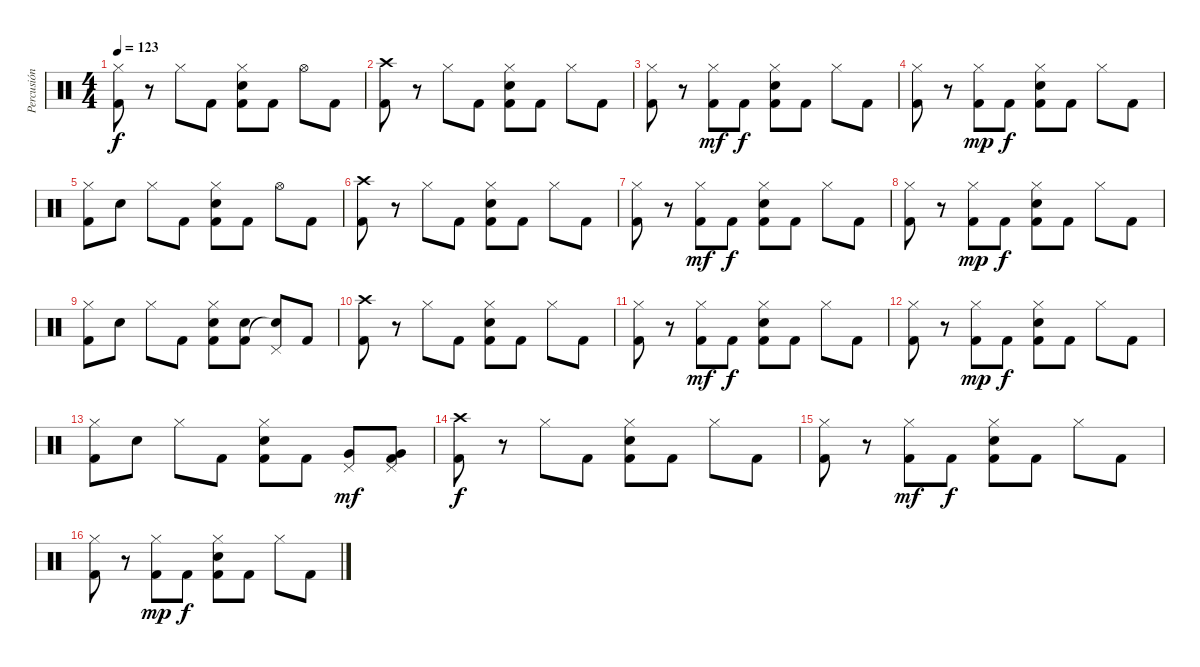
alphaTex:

\track ("Percusión" "Percusión") {instrument percussion}
\staff {score}
\articulation defaults
\ts (4 4)
\tempo 123
\clef neutral
\ks c
("Hi-Hat (closed)" "Kick (hit) 2").8{dy f} r.8 "Hi-Hat (closed)".8 "Kick (hit) 2".8 ("Hi-Hat (closed)" "Snare (hit) 2" "Kick (hit) 2").8 "Kick (hit) 2".8 "Hi-Hat (open)".8 "Kick (hit) 2".8 |
("Crash high (hit)" "Kick (hit) 2").8 r.8 "Hi-Hat (closed)".8 "Kick (hit) 2".8 ("Hi-Hat (closed)" "Snare (hit) 2" "Kick (hit) 2").8 "Kick (hit) 2".8 "Hi-Hat (closed)".8 "Kick (hit) 2".8 |
("Hi-Hat (closed)" "Kick (hit) 2").8 r.8 ("Hi-Hat (closed)" "Kick (hit) 2").8{dy mf} "Kick (hit) 2".8{dy f} ("Hi-Hat (closed)" "Snare (hit) 2" "Kick (hit) 2").8 "Kick (hit) 2".8 "Hi-Hat (closed)".8 "Kick (hit) 2".8 |
("Hi-Hat (closed)" "Kick (hit) 2").8 r.8 ("Hi-Hat (closed)" "Kick (hit) 2").8{dy mp} "Kick (hit) 2".8{dy f} ("Hi-Hat (closed)" "Snare (hit) 2" "Kick (hit) 2").8 "Kick (hit) 2".8 "Hi-Hat (closed)".8 "Kick (hit) 2".8 |
("Hi-Hat (closed)" "Kick (hit) 2").8 "Snare (hit) 2".8 "Hi-Hat (closed)".8 "Kick (hit) 2".8 ("Hi-Hat (closed)" "Snare (hit) 2" "Kick (hit) 2").8 "Kick (hit) 2".8 "Hi-Hat (open)".8 "Kick (hit) 2".8 |
("Crash high (hit)" "Kick (hit) 2").8 r.8 "Hi-Hat (closed)".8 "Kick (hit) 2".8 ("Hi-Hat (closed)" "Snare (hit) 2" "Kick (hit) 2").8 "Kick (hit) 2".8 "Hi-Hat (closed)".8 "Kick (hit) 2".8 |
("Hi-Hat (closed)" "Kick (hit) 2").8 r.8 ("Hi-Hat (closed)" "Kick (hit) 2").8{dy mf} "Kick (hit) 2".8{dy f} ("Hi-Hat (closed)" "Snare (hit) 2" "Kick (hit) 2").8 "Kick (hit) 2".8 "Hi-Hat (closed)".8 "Kick (hit) 2".8 |
("Hi-Hat (closed)" "Kick (hit) 2").8 r.8 ("Hi-Hat (closed)" "Kick (hit) 2").8{dy mp} "Kick (hit) 2".8{dy f} ("Hi-Hat (closed)" "Snare (hit) 2" "Kick (hit) 2").8 "Kick (hit) 2".8 "Hi-Hat (closed)".8 "Kick (hit) 2".8 |
("Hi-Hat (closed)" "Kick (hit) 2").8 "Snare (hit) 2".8 "Hi-Hat (closed)".8 "Kick (hit) 2".8 ("Hi-Hat (closed)" "Snare (hit) 2" "Kick (hit) 2").8 ("Snare (hit) 2" "Kick (hit) 2").8 ("Pedal Hi-Hat (hit)" "Snare (hit) 2"{t}).8 "Kick (hit) 2".8 |
("Crash high (hit)" "Kick (hit) 2").8 r.8 "Hi-Hat (closed)".8 "Kick (hit) 2".8 ("Hi-Hat (closed)" "Snare (hit) 2" "Kick (hit) 2").8 "Kick (hit) 2".8 "Hi-Hat (closed)".8 "Kick (hit) 2".8 |
("Hi-Hat (closed)" "Kick (hit) 2").8 r.8 ("Hi-Hat (closed)" "Kick (hit) 2").8{dy mf} "Kick (hit) 2".8{dy f} ("Hi-Hat (closed)" "Snare (hit) 2" "Kick (hit) 2").8 "Kick (hit) 2".8 "Hi-Hat (closed)".8 "Kick (hit) 2".8 |
("Hi-Hat (closed)" "Kick (hit) 2").8 r.8 ("Hi-Hat (closed)" "Kick (hit) 2").8{dy mp} "Kick (hit) 2".8{dy f} ("Hi-Hat (closed)" "Snare (hit) 2" "Kick (hit) 2").8 "Kick (hit) 2".8 "Hi-Hat (closed)".8 "Kick (hit) 2".8 |
("Hi-Hat (closed)" "Kick (hit) 2").8 "Snare (hit) 2".8 "Hi-Hat (closed)".8 "Kick (hit) 2".8 ("Hi-Hat (closed)" "Snare (hit) 2" "Kick (hit) 2").8 "Kick (hit) 2".8 ("Pedal Hi-Hat (hit)" "Very Low Tom (hit)").8{dy mf} ("Pedal Hi-Hat (hit)" "Very Low Tom (hit)" "Kick (hit) 2").8 |
("Crash high (hit)" "Kick (hit) 2").8{dy f} r.8 "Hi-Hat (closed)".8 "Kick (hit) 2".8 ("Hi-Hat (closed)" "Snare (hit) 2" "Kick (hit) 2").8 "Kick (hit) 2".8 "Hi-Hat (closed)".8 "Kick (hit) 2".8 |
("Hi-Hat (closed)" "Kick (hit) 2").8 r.8 ("Hi-Hat (closed)" "Kick (hit) 2").8{dy mf} "Kick (hit) 2".8{dy f} ("Hi-Hat (closed)" "Snare (hit) 2" "Kick (hit) 2").8 "Kick (hit) 2".8 "Hi-Hat (closed)".8 "Kick (hit) 2".8 |
("Hi-Hat (closed)" "Kick (hit) 2").8 r.8 ("Hi-Hat (closed)" "Kick (hit) 2").8{dy mp} "Kick (hit) 2".8{dy f} ("Hi-Hat (closed)" "Snare (hit) 2" "Kick (hit) 2").8 "Kick (hit) 2".8 "Hi-Hat (closed)".8 "Kick (hit) 2".8
